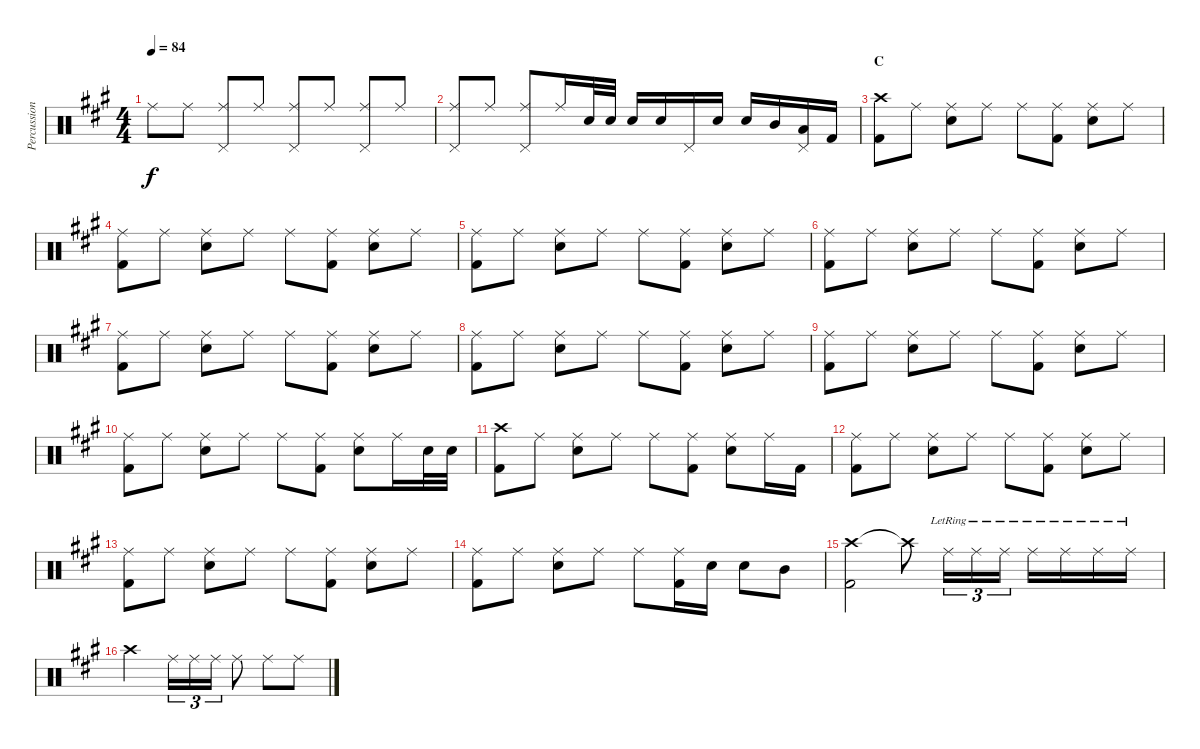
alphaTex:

\track ("Percussion - Chad S" "Percussion") {instrument percussion}
\staff {score}
\articulation defaults
\ts (4 4)
\tempo 84
\clef neutral
\ks a "Ride (middle)".8{dy f volume 6} "Ride (middle)".8{volume 16}
("Ride (middle)" "Pedal Hi-Hat (hit)").8 "Ride (middle)".8 ("Ride (middle)" "Pedal Hi-Hat (hit)").8 "Ride (middle)".8 ("Ride (middle)" "Pedal Hi-Hat (hit)").8 "Ride (middle)".8 |
("Ride (middle)" "Pedal Hi-Hat (hit)").8 "Ride (middle)".8 ("Ride (middle)" "Pedal Hi-Hat (hit)").8 "Ride (middle)".16 "Snare (hit) 2".32 "Snare (hit) 2".32 "Snare (hit) 2".16 "Snare (hit) 2".16 "Pedal Hi-Hat (hit)".16 "Snare (hit) 2".16 "Snare (hit) 2".16 "Mid Tom (hit)".16 ("Low Tom (hit)" "Pedal Hi-Hat (hit)").16 "Kick (hit) 2".16 |
\section ("" "C")
("Crash high (hit)" "Kick (hit) 2").8{volume 11} "Ride (middle)".8 ("Ride (middle)" "Snare (hit) 2").8 "Ride (middle)".8 "Ride (middle)".8 ("Ride (middle)" "Kick (hit) 2").8 ("Ride (middle)" "Snare (hit) 2").8 "Ride (middle)".8 |
("Ride (middle)" "Kick (hit) 2").8 "Ride (middle)".8 ("Ride (middle)" "Snare (hit) 2").8 "Ride (middle)".8 "Ride (middle)".8 ("Ride (middle)" "Kick (hit) 2").8 ("Ride (middle)" "Snare (hit) 2").8 "Ride (middle)".8 |
("Ride (middle)" "Kick (hit) 2").8 "Ride (middle)".8 ("Ride (middle)" "Snare (hit) 2").8 "Ride (middle)".8 "Ride (middle)".8 ("Ride (middle)" "Kick (hit) 2").8 ("Ride (middle)" "Snare (hit) 2").8 "Ride (middle)".8 |
("Ride (middle)" "Kick (hit) 2").8 "Ride (middle)".8 ("Ride (middle)" "Snare (hit) 2").8 "Ride (middle)".8 "Ride (middle)".8 ("Ride (middle)" "Kick (hit) 2").8 ("Ride (middle)" "Snare (hit) 2").8 "Ride (middle)".8 |
("Ride (middle)" "Kick (hit) 2").8 "Ride (middle)".8 ("Ride (middle)" "Snare (hit) 2").8 "Ride (middle)".8 "Ride (middle)".8 ("Ride (middle)" "Kick (hit) 2").8 ("Ride (middle)" "Snare (hit) 2").8 "Ride (middle)".8 |
("Ride (middle)" "Kick (hit) 2").8 "Ride (middle)".8 ("Ride (middle)" "Snare (hit) 2").8 "Ride (middle)".8 "Ride (middle)".8 ("Ride (middle)" "Kick (hit) 2").8 ("Ride (middle)" "Snare (hit) 2").8 "Ride (middle)".8 |
("Ride (middle)" "Kick (hit) 2").8 "Ride (middle)".8 ("Ride (middle)" "Snare (hit) 2").8 "Ride (middle)".8 "Ride (middle)".8 ("Ride (middle)" "Kick (hit) 2").8 ("Ride (middle)" "Snare (hit) 2").8 "Ride (middle)".8 |
("Ride (middle)" "Kick (hit) 2").8 "Ride (middle)".8 ("Ride (middle)" "Snare (hit) 2").8 "Ride (middle)".8 "Ride (middle)".8 ("Ride (middle)" "Kick (hit) 2").8 ("Ride (middle)" "Snare (hit) 2").8 "Ride (middle)".16 "Snare (hit) 2".32 "Snare (hit) 2".32 |
("Crash high (hit)" "Kick (hit) 2").8 "Ride (middle)".8 ("Ride (middle)" "Snare (hit) 2").8 "Ride (middle)".8 "Ride (middle)".8 ("Ride (middle)" "Kick (hit) 2").8 ("Ride (middle)" "Snare (hit) 2").8 "Ride (middle)".16 "Kick (hit) 2".16 |
("Ride (middle)" "Kick (hit) 2").8 "Ride (middle)".8 ("Ride (middle)" "Snare (hit) 2").8 "Ride (middle)".8 "Ride (middle)".8 ("Ride (middle)" "Kick (hit) 2").8 ("Ride (middle)" "Snare (hit) 2").8 "Ride (middle)".8 |
("Ride (middle)" "Kick (hit) 2").8 "Ride (middle)".8 ("Ride (middle)" "Snare (hit) 2").8 "Ride (middle)".8 "Ride (middle)".8 ("Ride (middle)" "Kick (hit) 2").8 ("Ride (middle)" "Snare (hit) 2").8 "Ride (middle)".8 |
("Ride (middle)" "Kick (hit) 2").8 "Ride (middle)".8 ("Ride (middle)" "Snare (hit) 2").8 "Ride (middle)".8 "Ride (middle)".8 ("Ride (middle)" "Kick (hit) 2").16 "Snare (hit) 2".16 "Snare (hit) 2".8 "Mid Tom (hit)".8 |
("Crash high (hit)" "Kick (hit) 2").2 "Crash high (hit)"{t}.8 "Ride (middle)"{lr}.16{tu (3 2) volume 8} "Ride (middle)"{lr}.16{tu (3 2) volume 16} "Ride (middle)"{lr}.16{tu (3 2)} "Ride (middle)"{lr}.16 "Ride (middle)"{lr}.16 "Ride (middle)"{lr}.16 "Ride (middle)"{lr}.16 |
"Crash high (hit)".2 "Ride (middle)".16{tu (3 2) volume 10} "Ride (middle)".16{tu (3 2)} "Ride (middle)".16{tu (3 2)} "Ride (middle)".8 "Ride (middle)".8 "Ride (middle)".8
